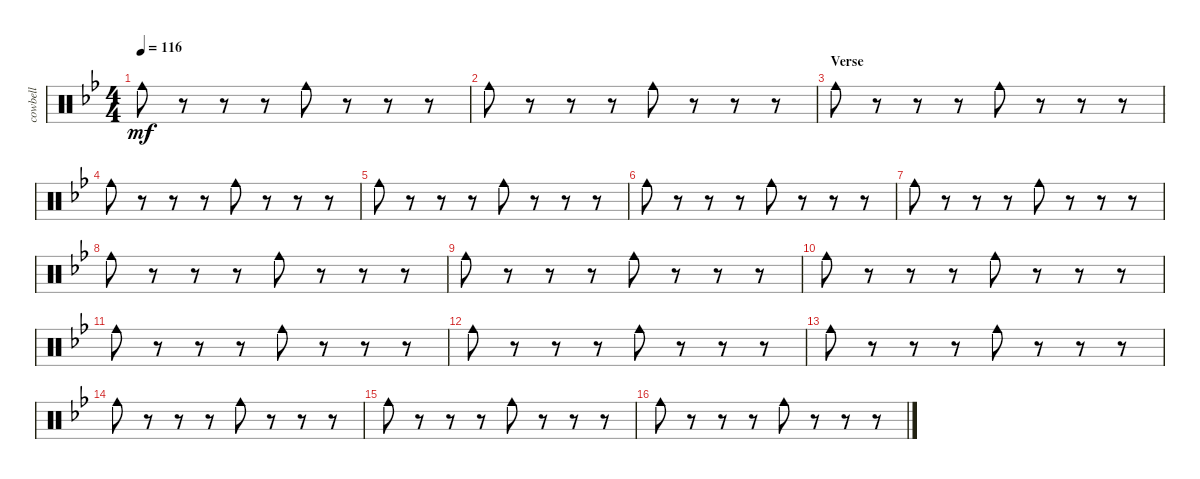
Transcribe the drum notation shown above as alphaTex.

\track ("cowbell" "cowbell") {instrument percussion}
\staff {score}
\articulation defaults
\ts (4 4)
\tempo 116
\clef neutral
\ks bb "Cowbell medium (hit)".8{dy mf}
r.8 r.8 r.8 "Cowbell medium (hit)".8 r.8 r.8 r.8 |
"Cowbell medium (hit)".8 r.8 r.8 r.8 "Cowbell medium (hit)".8 r.8 r.8 r.8 |
\section ("" "Verse")
"Cowbell medium (hit)".8 r.8 r.8 r.8 "Cowbell medium (hit)".8 r.8 r.8 r.8 |
"Cowbell medium (hit)".8 r.8 r.8 r.8 "Cowbell medium (hit)".8 r.8 r.8 r.8 |
"Cowbell medium (hit)".8 r.8 r.8 r.8 "Cowbell medium (hit)".8 r.8 r.8 r.8 |
"Cowbell medium (hit)".8 r.8 r.8 r.8 "Cowbell medium (hit)".8 r.8 r.8 r.8 |
"Cowbell medium (hit)".8 r.8 r.8 r.8 "Cowbell medium (hit)".8 r.8 r.8 r.8 |
"Cowbell medium (hit)".8 r.8 r.8 r.8 "Cowbell medium (hit)".8 r.8 r.8 r.8 |
"Cowbell medium (hit)".8 r.8 r.8 r.8 "Cowbell medium (hit)".8 r.8 r.8 r.8 |
"Cowbell medium (hit)".8 r.8 r.8 r.8 "Cowbell medium (hit)".8 r.8 r.8 r.8 |
"Cowbell medium (hit)".8 r.8 r.8 r.8 "Cowbell medium (hit)".8 r.8 r.8 r.8 |
"Cowbell medium (hit)".8 r.8 r.8 r.8 "Cowbell medium (hit)".8 r.8 r.8 r.8 |
"Cowbell medium (hit)".8 r.8 r.8 r.8 "Cowbell medium (hit)".8 r.8 r.8 r.8 |
"Cowbell medium (hit)".8 r.8 r.8 r.8 "Cowbell medium (hit)".8 r.8 r.8 r.8 |
"Cowbell medium (hit)".8 r.8 r.8 r.8 "Cowbell medium (hit)".8 r.8 r.8 r.8 |
"Cowbell medium (hit)".8 r.8 r.8 r.8 "Cowbell medium (hit)".8 r.8 r.8 r.8
